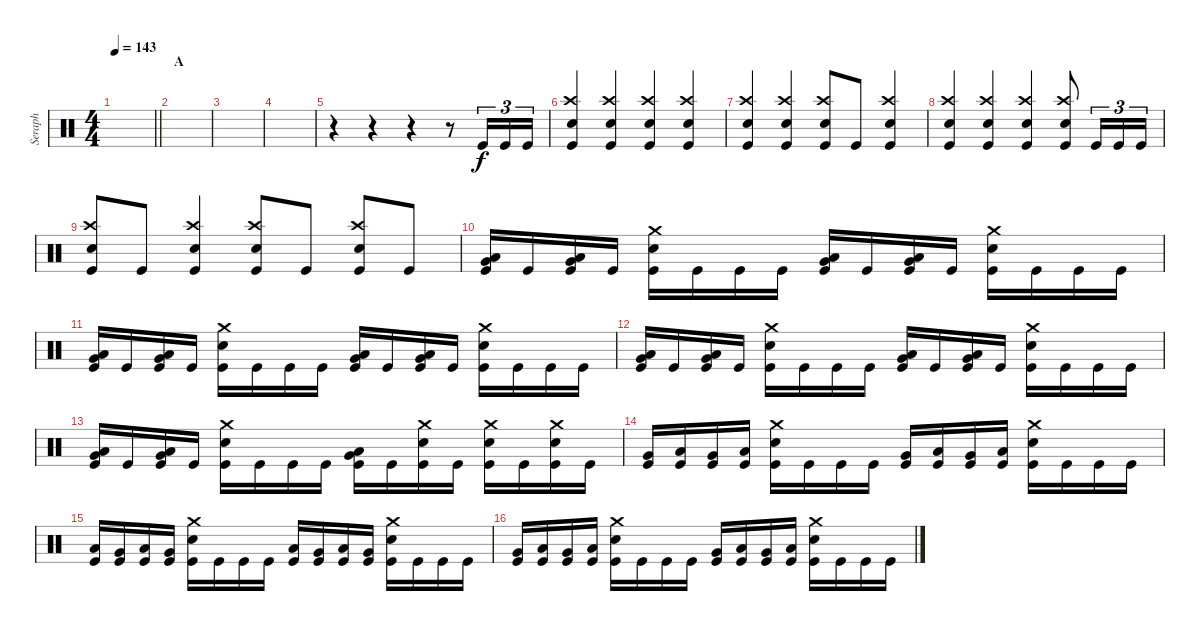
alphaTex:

\track ("Seraph" "Seraph") {instrument percussion}
\staff {score}
\articulation defaults
\ts (4 4)
\tempo 143
\clef neutral
\barLineRight lightlight
\ks c
|
\section ("" "A")
|
|
|
r.4 r.4 r.4 r.8 "Kick (hit)".16{tu (3 2)} "Kick (hit)".16{tu (3 2)} "Kick (hit)".16{tu (3 2)} |
("Crash high (hit)" "Electric Snare (hit)" "Kick (hit)").4 ("Crash high (hit)" "Electric Snare (hit)" "Kick (hit)").4 ("Crash high (hit)" "Electric Snare (hit)" "Kick (hit)").4 ("Crash high (hit)" "Electric Snare (hit)" "Kick (hit)").4 |
("Crash high (hit)" "Electric Snare (hit)" "Kick (hit)").4 ("Crash high (hit)" "Electric Snare (hit)" "Kick (hit)").4 ("Crash high (hit)" "Electric Snare (hit)" "Kick (hit)").8 "Kick (hit)".8 ("Crash high (hit)" "Electric Snare (hit)" "Kick (hit)").4 |
("Crash high (hit)" "Electric Snare (hit)" "Kick (hit)").4 ("Crash high (hit)" "Electric Snare (hit)" "Kick (hit)").4 ("Crash high (hit)" "Electric Snare (hit)" "Kick (hit)").4 ("Crash high (hit)" "Electric Snare (hit)" "Kick (hit)").8 "Kick (hit)".16{tu (3 2)} "Kick (hit)".16{tu (3 2)} "Kick (hit)".16{tu (3 2)} |
("Crash high (hit)" "Electric Snare (hit)" "Kick (hit)").8 "Kick (hit)".8 ("Crash high (hit)" "Electric Snare (hit)" "Kick (hit)").4 ("Crash high (hit)" "Electric Snare (hit)" "Kick (hit)").8 "Kick (hit)".8 ("Crash high (hit)" "Electric Snare (hit)" "Kick (hit)").8 "Kick (hit)".8 |
("Very Low Tom (hit)" "Low Floor Tom (hit)" "Kick (hit)").16 "Kick (hit)".16 ("Very Low Tom (hit)" "Low Tom (hit)" "Kick (hit)").16 "Kick (hit)".16 ("Crash medium (hit)" "Electric Snare (hit)" "Kick (hit)").16 "Kick (hit)".16 "Kick (hit)".16 "Kick (hit)".16 ("Very Low Tom (hit)" "Low Floor Tom (hit)" "Kick (hit)").16 "Kick (hit)".16 ("Very Low Tom (hit)" "Low Tom (hit)" "Kick (hit)").16 "Kick (hit)".16 ("Crash medium (hit)" "Electric Snare (hit)" "Kick (hit)").16 "Kick (hit)".16 "Kick (hit)".16 "Kick (hit)".16 |
("Very Low Tom (hit)" "Low Tom (hit)" "Kick (hit)").16 "Kick (hit)".16 ("Very Low Tom (hit)" "Low Floor Tom (hit)" "Kick (hit)").16 "Kick (hit)".16 ("Crash medium (hit)" "Electric Snare (hit)" "Kick (hit)").16 "Kick (hit)".16 "Kick (hit)".16 "Kick (hit)".16 ("Very Low Tom (hit)" "Low Tom (hit)" "Kick (hit)").16 "Kick (hit)".16 ("Very Low Tom (hit)" "Low Floor Tom (hit)" "Kick (hit)").16 "Kick (hit)".16 ("Crash medium (hit)" "Electric Snare (hit)" "Kick (hit)").16 "Kick (hit)".16 "Kick (hit)".16 "Kick (hit)".16 |
("Very Low Tom (hit)" "Low Floor Tom (hit)" "Kick (hit)").16 "Kick (hit)".16 ("Very Low Tom (hit)" "Low Tom (hit)" "Kick (hit)").16 "Kick (hit)".16 ("Crash medium (hit)" "Electric Snare (hit)" "Kick (hit)").16 "Kick (hit)".16 "Kick (hit)".16 "Kick (hit)".16 ("Very Low Tom (hit)" "Low Floor Tom (hit)" "Kick (hit)").16 "Kick (hit)".16 ("Very Low Tom (hit)" "Low Tom (hit)" "Kick (hit)").16 "Kick (hit)".16 ("Crash medium (hit)" "Electric Snare (hit)" "Kick (hit)").16 "Kick (hit)".16 "Kick (hit)".16 "Kick (hit)".16 |
("Very Low Tom (hit)" "Low Tom (hit)" "Kick (hit)").16 "Kick (hit)".16 ("Very Low Tom (hit)" "Low Floor Tom (hit)" "Kick (hit)").16 "Kick (hit)".16 ("Crash medium (hit)" "Electric Snare (hit)" "Kick (hit)").16 "Kick (hit)".16 "Kick (hit)".16 "Kick (hit)".16 ("Very Low Tom (hit)" "Low Tom (hit)" "Kick (hit)").16 "Kick (hit)".16 ("Crash medium (hit)" "Electric Snare (hit)" "Kick (hit)").16 "Kick (hit)".16 ("Crash medium (hit)" "Electric Snare (hit)" "Kick (hit)").16 "Kick (hit)".16 ("Crash medium (hit)" "Electric Snare (hit)" "Kick (hit)").16 "Kick (hit)".16 |
("Very Low Tom (hit)" "Kick (hit)").16 ("Low Tom (hit)" "Kick (hit)").16 ("Very Low Tom (hit)" "Kick (hit)").16 ("Low Tom (hit)" "Kick (hit)").16 ("Crash medium (hit)" "Electric Snare (hit)" "Kick (hit)").16 "Kick (hit)".16 "Kick (hit)".16 "Kick (hit)".16 ("Very Low Tom (hit)" "Kick (hit)").16 ("Low Tom (hit)" "Kick (hit)").16 ("Very Low Tom (hit)" "Kick (hit)").16 ("Low Tom (hit)" "Kick (hit)").16 ("Crash medium (hit)" "Electric Snare (hit)" "Kick (hit)").16 "Kick (hit)".16 "Kick (hit)".16 "Kick (hit)".16 |
("Low Tom (hit)" "Kick (hit)").16 ("Very Low Tom (hit)" "Kick (hit)").16 ("Low Tom (hit)" "Kick (hit)").16 ("Very Low Tom (hit)" "Kick (hit)").16 ("Crash medium (hit)" "Electric Snare (hit)" "Kick (hit)").16 "Kick (hit)".16 "Kick (hit)".16 "Kick (hit)".16 ("Low Tom (hit)" "Kick (hit)").16 ("Very Low Tom (hit)" "Kick (hit)").16 ("Low Tom (hit)" "Kick (hit)").16 ("Very Low Tom (hit)" "Kick (hit)").16 ("Crash medium (hit)" "Electric Snare (hit)" "Kick (hit)").16 "Kick (hit)".16 "Kick (hit)".16 "Kick (hit)".16 |
("Very Low Tom (hit)" "Kick (hit)").16 ("Low Tom (hit)" "Kick (hit)").16 ("Very Low Tom (hit)" "Kick (hit)").16 ("Low Tom (hit)" "Kick (hit)").16 ("Crash medium (hit)" "Electric Snare (hit)" "Kick (hit)").16 "Kick (hit)".16 "Kick (hit)".16 "Kick (hit)".16 ("Very Low Tom (hit)" "Kick (hit)").16 ("Low Tom (hit)" "Kick (hit)").16 ("Very Low Tom (hit)" "Kick (hit)").16 ("Low Tom (hit)" "Kick (hit)").16 ("Crash medium (hit)" "Electric Snare (hit)" "Kick (hit)").16 "Kick (hit)".16 "Kick (hit)".16 "Kick (hit)".16
